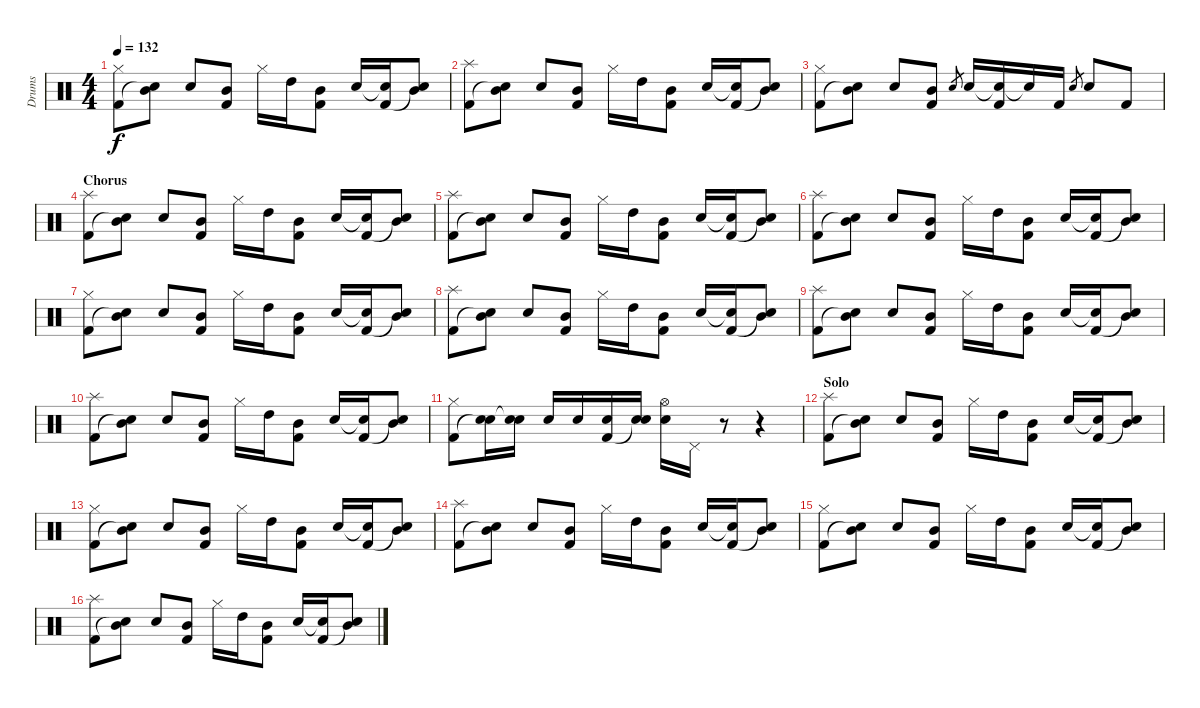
\track ("Drums" "Drums") {instrument percussion}
\staff {score}
\articulation defaults
\ts (4 4)
\tempo 132
\clef neutral
\ks c
("Hi-Hat (closed)" "Kick (hit) 2").8{dy f} ("Mid Tom (hit)" "Snare (hit)"{t}).8 "Electric Snare (hit)".8 ("Mid Tom (hit)" "Kick (hit) 2").8 "Hi-Hat (closed)".16 "High Tom (hit)".16 ("Mid Tom (hit)" "Kick (hit) 2").8 "Electric Snare (hit)".16 ("Snare (hit)"{t} "Kick (hit) 2").16 ("Mid Tom (hit)" "Snare (hit)"{t}).8 |
("Splash (hit)" "Kick (hit) 2").8 ("Mid Tom (hit)" "Snare (hit)"{t}).8 "Electric Snare (hit)".8 ("Mid Tom (hit)" "Kick (hit) 2").8 "Hi-Hat (closed)".16 "High Tom (hit)".16 ("Mid Tom (hit)" "Kick (hit) 2").8 "Electric Snare (hit)".16 ("Snare (hit)"{t} "Kick (hit) 2").16 ("Mid Tom (hit)" "Snare (hit)"{t}).8 |
("Hi-Hat (closed)" "Kick (hit) 2").8 ("Mid Tom (hit)" "Snare (hit)"{t}).8 "Electric Snare (hit)".8 ("Mid Tom (hit)" "Kick (hit) 2").8 "Electric Snare (hit)".8{gr} "Electric Snare (hit)".16 ("Snare (hit)"{t} "Kick (hit) 2").16 "Snare (hit)"{t}.16 "Kick (hit) 2".16 "Electric Snare (hit)".8{gr} "Electric Snare (hit)".8 "Kick (hit) 2".8 |
\section ("" "Chorus")
("Splash (hit)" "Kick (hit) 2").8 ("Mid Tom (hit)" "Snare (hit)"{t}).8 "Electric Snare (hit)".8 ("Mid Tom (hit)" "Kick (hit) 2").8 "Hi-Hat (closed)".16 "High Tom (hit)".16 ("Mid Tom (hit)" "Kick (hit) 2").8 "Electric Snare (hit)".16 ("Snare (hit)"{t} "Kick (hit) 2").16 ("Mid Tom (hit)" "Snare (hit)"{t}).8 |
("Splash (hit)" "Kick (hit) 2").8 ("Mid Tom (hit)" "Snare (hit)"{t}).8 "Electric Snare (hit)".8 ("Mid Tom (hit)" "Kick (hit) 2").8 "Hi-Hat (closed)".16 "High Tom (hit)".16 ("Mid Tom (hit)" "Kick (hit) 2").8 "Electric Snare (hit)".16 ("Snare (hit)"{t} "Kick (hit) 2").16 ("Mid Tom (hit)" "Snare (hit)"{t}).8 |
("Splash (hit)" "Kick (hit) 2").8 ("Mid Tom (hit)" "Snare (hit)"{t}).8 "Electric Snare (hit)".8 ("Mid Tom (hit)" "Kick (hit) 2").8 "Hi-Hat (closed)".16 "High Tom (hit)".16 ("Mid Tom (hit)" "Kick (hit) 2").8 "Electric Snare (hit)".16 ("Snare (hit)"{t} "Kick (hit) 2").16 ("Mid Tom (hit)" "Snare (hit)"{t}).8 |
("Hi-Hat (closed)" "Kick (hit) 2").8 ("Mid Tom (hit)" "Snare (hit)"{t}).8 "Electric Snare (hit)".8 ("Mid Tom (hit)" "Kick (hit) 2").8 "Hi-Hat (closed)".16 "High Tom (hit)".16 ("Mid Tom (hit)" "Kick (hit) 2").8 "Electric Snare (hit)".16 ("Snare (hit)"{t} "Kick (hit) 2").16 ("Mid Tom (hit)" "Snare (hit)"{t}).8 |
("Splash (hit)" "Kick (hit) 2").8 ("Mid Tom (hit)" "Snare (hit)"{t}).8 "Electric Snare (hit)".8 ("Mid Tom (hit)" "Kick (hit) 2").8 "Hi-Hat (closed)".16 "High Tom (hit)".16 ("Mid Tom (hit)" "Kick (hit) 2").8 "Electric Snare (hit)".16 ("Snare (hit)"{t} "Kick (hit) 2").16 ("Mid Tom (hit)" "Snare (hit)"{t}).8 |
("Splash (hit)" "Kick (hit) 2").8 ("Mid Tom (hit)" "Snare (hit)"{t}).8 "Electric Snare (hit)".8 ("Mid Tom (hit)" "Kick (hit) 2").8 "Hi-Hat (closed)".16 "High Tom (hit)".16 ("Mid Tom (hit)" "Kick (hit) 2").8 "Electric Snare (hit)".16 ("Snare (hit)"{t} "Kick (hit) 2").16 ("Mid Tom (hit)" "Snare (hit)"{t}).8 |
("Splash (hit)" "Kick (hit) 2").8 ("Mid Tom (hit)" "Snare (hit)"{t}).8 "Electric Snare (hit)".8 ("Mid Tom (hit)" "Kick (hit) 2").8 "Hi-Hat (closed)".16 "High Tom (hit)".16 ("Mid Tom (hit)" "Kick (hit) 2").8 "Electric Snare (hit)".16 ("Snare (hit)"{t} "Kick (hit) 2").16 ("Mid Tom (hit)" "Snare (hit)"{t}).8 |
("Hi-Hat (closed)" "Kick (hit) 2").8 ("Electric Snare (hit)" "Snare (hit)"{t}).16 ("Electric Snare (hit)" "Snare (hit)"{t}).16 "Electric Snare (hit)".16 "Electric Snare (hit)".16 ("Electric Snare (hit)" "Kick (hit) 2").16 ("Electric Snare (hit)" "Snare (hit)"{t}).16 ("Hi-Hat (open)" "Electric Snare (hit)").16 "Pedal Hi-Hat (hit)".16 r.8 r.4 |
\section ("" "Solo")
("Splash (hit)" "Kick (hit) 2").8 ("Mid Tom (hit)" "Snare (hit)"{t}).8 "Electric Snare (hit)".8 ("Mid Tom (hit)" "Kick (hit) 2").8 "Hi-Hat (closed)".16 "High Tom (hit)".16 ("Mid Tom (hit)" "Kick (hit) 2").8 "Electric Snare (hit)".16 ("Snare (hit)"{t} "Kick (hit) 2").16 ("Mid Tom (hit)" "Snare (hit)"{t}).8 |
("Hi-Hat (closed)" "Kick (hit) 2").8 ("Mid Tom (hit)" "Snare (hit)"{t}).8 "Electric Snare (hit)".8 ("Mid Tom (hit)" "Kick (hit) 2").8 "Hi-Hat (closed)".16 "High Tom (hit)".16 ("Mid Tom (hit)" "Kick (hit) 2").8 "Electric Snare (hit)".16 ("Snare (hit)"{t} "Kick (hit) 2").16 ("Mid Tom (hit)" "Snare (hit)"{t}).8 |
("Splash (hit)" "Kick (hit) 2").8 ("Mid Tom (hit)" "Snare (hit)"{t}).8 "Electric Snare (hit)".8 ("Mid Tom (hit)" "Kick (hit) 2").8 "Hi-Hat (closed)".16 "High Tom (hit)".16 ("Mid Tom (hit)" "Kick (hit) 2").8 "Electric Snare (hit)".16 ("Snare (hit)"{t} "Kick (hit) 2").16 ("Mid Tom (hit)" "Snare (hit)"{t}).8 |
("Hi-Hat (closed)" "Kick (hit) 2").8 ("Mid Tom (hit)" "Snare (hit)"{t}).8 "Electric Snare (hit)".8 ("Mid Tom (hit)" "Kick (hit) 2").8 "Hi-Hat (closed)".16 "High Tom (hit)".16 ("Mid Tom (hit)" "Kick (hit) 2").8 "Electric Snare (hit)".16 ("Snare (hit)"{t} "Kick (hit) 2").16 ("Mid Tom (hit)" "Snare (hit)"{t}).8 |
("Splash (hit)" "Kick (hit) 2").8 ("Mid Tom (hit)" "Snare (hit)"{t}).8 "Electric Snare (hit)".8 ("Mid Tom (hit)" "Kick (hit) 2").8 "Hi-Hat (closed)".16 "High Tom (hit)".16 ("Mid Tom (hit)" "Kick (hit) 2").8 "Electric Snare (hit)".16 ("Snare (hit)"{t} "Kick (hit) 2").16 ("Mid Tom (hit)" "Snare (hit)"{t}).8
